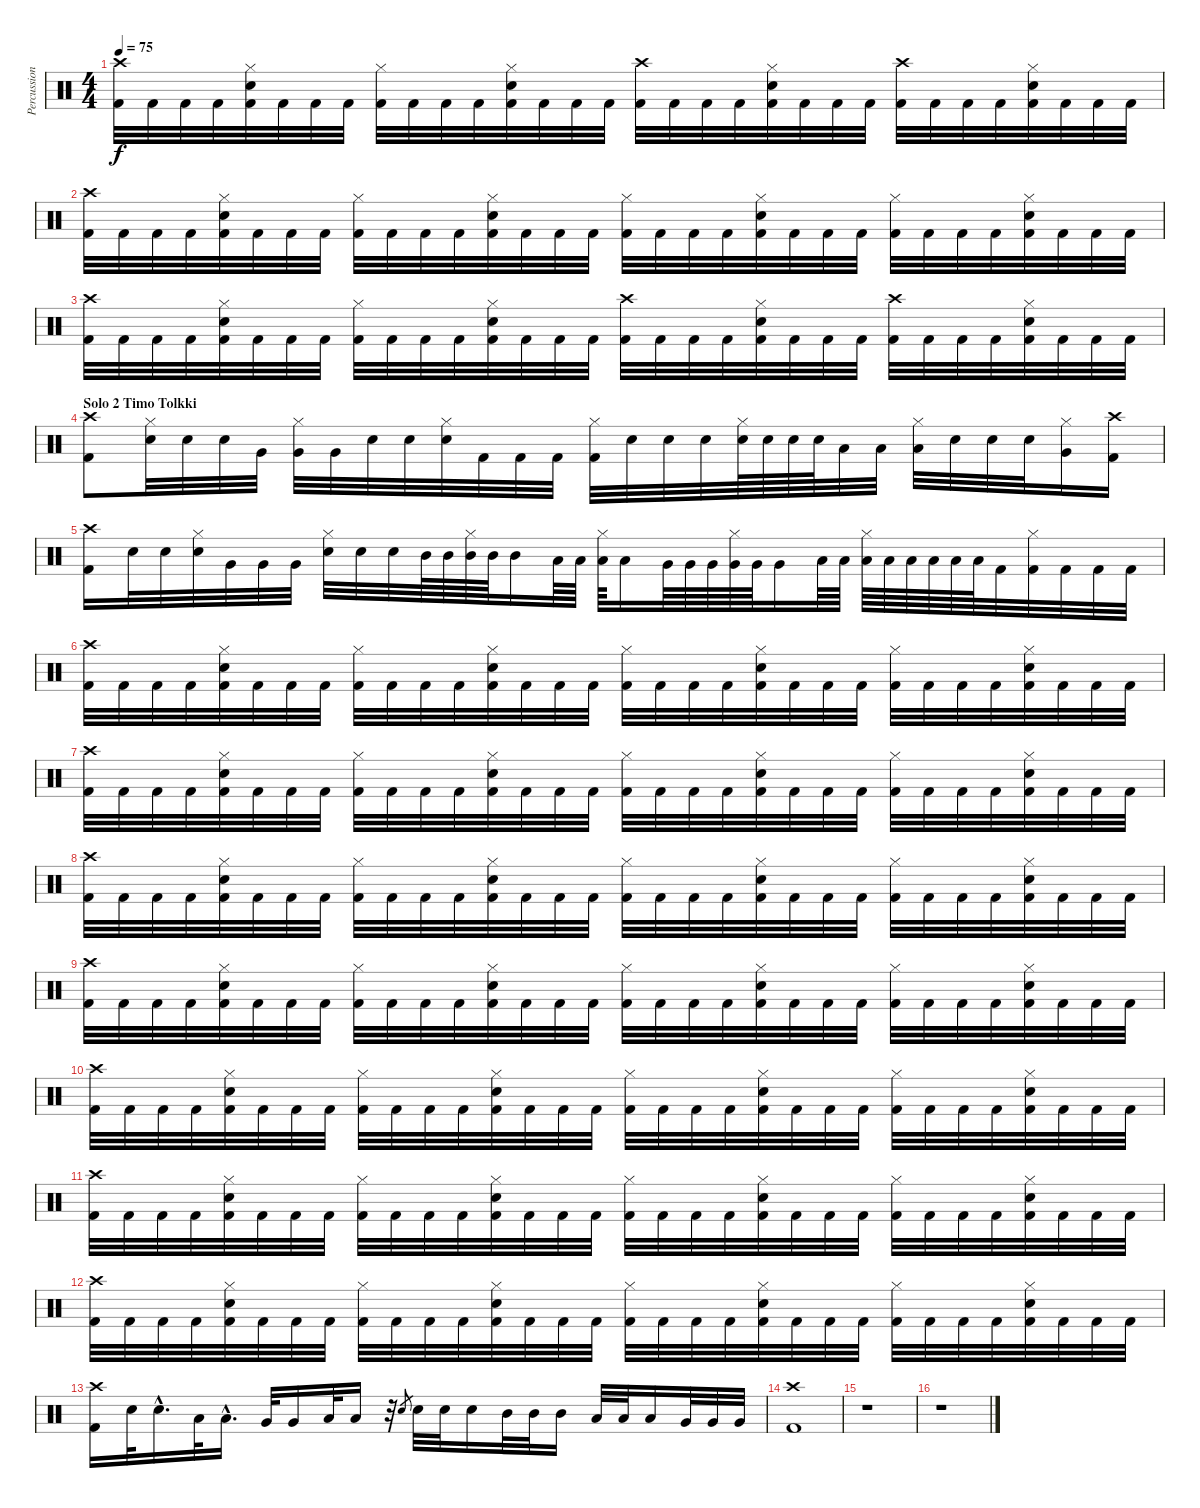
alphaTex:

\track ("Percussions" "Percussion") {instrument percussion}
\staff {score}
\articulation defaults
\ts (4 4)
\tempo 75
\clef neutral
\ks c
("Crash high (hit)" "Kick (hit) 2").32{dy f} "Kick (hit) 2".32 "Kick (hit) 2".32 "Kick (hit) 2".32 ("Hi-Hat (closed)" "Electric Snare (hit)" "Kick (hit) 2").32 "Kick (hit) 2".32 "Kick (hit) 2".32 "Kick (hit) 2".32 ("Hi-Hat (closed)" "Kick (hit) 2").32 "Kick (hit) 2".32 "Kick (hit) 2".32 "Kick (hit) 2".32 ("Hi-Hat (closed)" "Electric Snare (hit)" "Kick (hit) 2").32 "Kick (hit) 2".32 "Kick (hit) 2".32 "Kick (hit) 2".32 ("Crash high (hit)" "Kick (hit) 2").32 "Kick (hit) 2".32 "Kick (hit) 2".32 "Kick (hit) 2".32 ("Hi-Hat (closed)" "Electric Snare (hit)" "Kick (hit) 2").32 "Kick (hit) 2".32 "Kick (hit) 2".32 "Kick (hit) 2".32 ("Crash high (hit)" "Kick (hit) 2").32 "Kick (hit) 2".32 "Kick (hit) 2".32 "Kick (hit) 2".32 ("Hi-Hat (closed)" "Electric Snare (hit)" "Kick (hit) 2").32 "Kick (hit) 2".32 "Kick (hit) 2".32 "Kick (hit) 2".32 |
("Crash high (hit)" "Kick (hit) 2").32 "Kick (hit) 2".32 "Kick (hit) 2".32 "Kick (hit) 2".32 ("Hi-Hat (closed)" "Electric Snare (hit)" "Kick (hit) 2").32 "Kick (hit) 2".32 "Kick (hit) 2".32 "Kick (hit) 2".32 ("Hi-Hat (closed)" "Kick (hit) 2").32 "Kick (hit) 2".32 "Kick (hit) 2".32 "Kick (hit) 2".32 ("Hi-Hat (closed)" "Electric Snare (hit)" "Kick (hit) 2").32 "Kick (hit) 2".32 "Kick (hit) 2".32 "Kick (hit) 2".32 ("Hi-Hat (closed)" "Kick (hit) 2").32 "Kick (hit) 2".32 "Kick (hit) 2".32 "Kick (hit) 2".32 ("Hi-Hat (closed)" "Electric Snare (hit)" "Kick (hit) 2").32 "Kick (hit) 2".32 "Kick (hit) 2".32 "Kick (hit) 2".32 ("Hi-Hat (closed)" "Kick (hit) 2").32 "Kick (hit) 2".32 "Kick (hit) 2".32 "Kick (hit) 2".32 ("Hi-Hat (closed)" "Electric Snare (hit)" "Kick (hit) 2").32 "Kick (hit) 2".32 "Kick (hit) 2".32 "Kick (hit) 2".32 |
("Crash high (hit)" "Kick (hit) 2").32 "Kick (hit) 2".32 "Kick (hit) 2".32 "Kick (hit) 2".32 ("Hi-Hat (closed)" "Electric Snare (hit)" "Kick (hit) 2").32 "Kick (hit) 2".32 "Kick (hit) 2".32 "Kick (hit) 2".32 ("Hi-Hat (closed)" "Kick (hit) 2").32 "Kick (hit) 2".32 "Kick (hit) 2".32 "Kick (hit) 2".32 ("Hi-Hat (closed)" "Electric Snare (hit)" "Kick (hit) 2").32 "Kick (hit) 2".32 "Kick (hit) 2".32 "Kick (hit) 2".32 ("Crash high (hit)" "Kick (hit) 2").32 "Kick (hit) 2".32 "Kick (hit) 2".32 "Kick (hit) 2".32 ("Hi-Hat (closed)" "Electric Snare (hit)" "Kick (hit) 2").32 "Kick (hit) 2".32 "Kick (hit) 2".32 "Kick (hit) 2".32 ("Crash high (hit)" "Kick (hit) 2").32 "Kick (hit) 2".32 "Kick (hit) 2".32 "Kick (hit) 2".32 ("Hi-Hat (closed)" "Electric Snare (hit)" "Kick (hit) 2").32 "Kick (hit) 2".32 "Kick (hit) 2".32 "Kick (hit) 2".32 |
\section ("" "Solo 2 Timo Tolkki")
("Crash high (hit)" "Kick (hit) 2").8 ("Hi-Hat (closed)" "Electric Snare (hit)").32 "Electric Snare (hit)".32 "Electric Snare (hit)".32 "Very Low Tom (hit)".32 ("Hi-Hat (closed)" "Very Low Tom (hit)").32 "Very Low Tom (hit)".32 "Electric Snare (hit)".32 "Electric Snare (hit)".32 ("Hi-Hat (closed)" "Electric Snare (hit)").32 "Kick (hit) 2".32 "Kick (hit) 2".32 "Kick (hit) 2".32 ("Hi-Hat (closed)" "Kick (hit) 2").32 "Electric Snare (hit)".32 "Electric Snare (hit)".32 "Electric Snare (hit)".32 ("Hi-Hat (closed)" "Electric Snare (hit)").64 "Electric Snare (hit)".64 "Electric Snare (hit)".64 "Electric Snare (hit)".64 "Low Tom (hit)".32 "Low Tom (hit)".32 ("Hi-Hat (closed)" "Low Tom (hit)").32 "Electric Snare (hit)".32 "Electric Snare (hit)".32 "Electric Snare (hit)".32 ("Hi-Hat (closed)" "Very Low Tom (hit)").16 ("Crash high (hit)" "Kick (hit) 2").16 |
("Crash high (hit)" "Kick (hit) 2").16 "Electric Snare (hit)".32 "Electric Snare (hit)".32 ("Hi-Hat (closed)" "Electric Snare (hit)").32 "Very Low Tom (hit)".32 "Very Low Tom (hit)".32 "Very Low Tom (hit)".32 ("Hi-Hat (closed)" "Electric Snare (hit)").32 "Electric Snare (hit)".32 "Electric Snare (hit)".32 "Mid Tom (hit)".64 "Mid Tom (hit)".64 ("Hi-Hat (closed)" "Mid Tom (hit)").64 "Mid Tom (hit)".64 "Mid Tom (hit)".16 "Low Tom (hit)".64 "Low Tom (hit)".64 ("Hi-Hat (closed)" "Low Tom (hit)").64 "Low Tom (hit)".16 "Very Low Tom (hit)".64 "Very Low Tom (hit)".64 "Very Low Tom (hit)".64 ("Hi-Hat (closed)" "Very Low Tom (hit)").64 "Very Low Tom (hit)".64 "Very Low Tom (hit)".16 "Low Floor Tom (hit)".64 "Low Floor Tom (hit)".64 ("Hi-Hat (closed)" "Low Floor Tom (hit)").64 "Low Floor Tom (hit)".64 "Low Floor Tom (hit)".64 "Low Floor Tom (hit)".64 "Low Floor Tom (hit)".64 "Low Floor Tom (hit)".64 "Kick (hit) 2".32 ("Hi-Hat (closed)" "Kick (hit) 2").32 "Kick (hit) 2".32 "Kick (hit) 2".32 "Kick (hit) 2".32 |
("Crash high (hit)" "Kick (hit) 2").32 "Kick (hit) 2".32 "Kick (hit) 2".32 "Kick (hit) 2".32 ("Hi-Hat (closed)" "Electric Snare (hit)" "Kick (hit) 2").32 "Kick (hit) 2".32 "Kick (hit) 2".32 "Kick (hit) 2".32 ("Hi-Hat (closed)" "Kick (hit) 2").32 "Kick (hit) 2".32 "Kick (hit) 2".32 "Kick (hit) 2".32 ("Hi-Hat (closed)" "Electric Snare (hit)" "Kick (hit) 2").32 "Kick (hit) 2".32 "Kick (hit) 2".32 "Kick (hit) 2".32 ("Hi-Hat (closed)" "Kick (hit) 2").32 "Kick (hit) 2".32 "Kick (hit) 2".32 "Kick (hit) 2".32 ("Hi-Hat (closed)" "Electric Snare (hit)" "Kick (hit) 2").32 "Kick (hit) 2".32 "Kick (hit) 2".32 "Kick (hit) 2".32 ("Hi-Hat (closed)" "Kick (hit) 2").32 "Kick (hit) 2".32 "Kick (hit) 2".32 "Kick (hit) 2".32 ("Hi-Hat (closed)" "Electric Snare (hit)" "Kick (hit) 2").32 "Kick (hit) 2".32 "Kick (hit) 2".32 "Kick (hit) 2".32 |
("Crash high (hit)" "Kick (hit) 2").32 "Kick (hit) 2".32 "Kick (hit) 2".32 "Kick (hit) 2".32 ("Hi-Hat (closed)" "Electric Snare (hit)" "Kick (hit) 2").32 "Kick (hit) 2".32 "Kick (hit) 2".32 "Kick (hit) 2".32 ("Hi-Hat (closed)" "Kick (hit) 2").32 "Kick (hit) 2".32 "Kick (hit) 2".32 "Kick (hit) 2".32 ("Hi-Hat (closed)" "Electric Snare (hit)" "Kick (hit) 2").32 "Kick (hit) 2".32 "Kick (hit) 2".32 "Kick (hit) 2".32 ("Hi-Hat (closed)" "Kick (hit) 2").32 "Kick (hit) 2".32 "Kick (hit) 2".32 "Kick (hit) 2".32 ("Hi-Hat (closed)" "Electric Snare (hit)" "Kick (hit) 2").32 "Kick (hit) 2".32 "Kick (hit) 2".32 "Kick (hit) 2".32 ("Hi-Hat (closed)" "Kick (hit) 2").32 "Kick (hit) 2".32 "Kick (hit) 2".32 "Kick (hit) 2".32 ("Hi-Hat (closed)" "Electric Snare (hit)" "Kick (hit) 2").32 "Kick (hit) 2".32 "Kick (hit) 2".32 "Kick (hit) 2".32 |
("Crash high (hit)" "Kick (hit) 2").32 "Kick (hit) 2".32 "Kick (hit) 2".32 "Kick (hit) 2".32 ("Hi-Hat (closed)" "Electric Snare (hit)" "Kick (hit) 2").32 "Kick (hit) 2".32 "Kick (hit) 2".32 "Kick (hit) 2".32 ("Hi-Hat (closed)" "Kick (hit) 2").32 "Kick (hit) 2".32 "Kick (hit) 2".32 "Kick (hit) 2".32 ("Hi-Hat (closed)" "Electric Snare (hit)" "Kick (hit) 2").32 "Kick (hit) 2".32 "Kick (hit) 2".32 "Kick (hit) 2".32 ("Hi-Hat (closed)" "Kick (hit) 2").32 "Kick (hit) 2".32 "Kick (hit) 2".32 "Kick (hit) 2".32 ("Hi-Hat (closed)" "Electric Snare (hit)" "Kick (hit) 2").32 "Kick (hit) 2".32 "Kick (hit) 2".32 "Kick (hit) 2".32 ("Hi-Hat (closed)" "Kick (hit) 2").32 "Kick (hit) 2".32 "Kick (hit) 2".32 "Kick (hit) 2".32 ("Hi-Hat (closed)" "Electric Snare (hit)" "Kick (hit) 2").32 "Kick (hit) 2".32 "Kick (hit) 2".32 "Kick (hit) 2".32 |
("Crash high (hit)" "Kick (hit) 2").32 "Kick (hit) 2".32 "Kick (hit) 2".32 "Kick (hit) 2".32 ("Hi-Hat (closed)" "Electric Snare (hit)" "Kick (hit) 2").32 "Kick (hit) 2".32 "Kick (hit) 2".32 "Kick (hit) 2".32 ("Hi-Hat (closed)" "Kick (hit) 2").32 "Kick (hit) 2".32 "Kick (hit) 2".32 "Kick (hit) 2".32 ("Hi-Hat (closed)" "Electric Snare (hit)" "Kick (hit) 2").32 "Kick (hit) 2".32 "Kick (hit) 2".32 "Kick (hit) 2".32 ("Hi-Hat (closed)" "Kick (hit) 2").32 "Kick (hit) 2".32 "Kick (hit) 2".32 "Kick (hit) 2".32 ("Hi-Hat (closed)" "Electric Snare (hit)" "Kick (hit) 2").32 "Kick (hit) 2".32 "Kick (hit) 2".32 "Kick (hit) 2".32 ("Hi-Hat (closed)" "Kick (hit) 2").32 "Kick (hit) 2".32 "Kick (hit) 2".32 "Kick (hit) 2".32 ("Hi-Hat (closed)" "Electric Snare (hit)" "Kick (hit) 2").32 "Kick (hit) 2".32 "Kick (hit) 2".32 "Kick (hit) 2".32 |
("Crash high (hit)" "Kick (hit) 2").32 "Kick (hit) 2".32 "Kick (hit) 2".32 "Kick (hit) 2".32 ("Hi-Hat (closed)" "Electric Snare (hit)" "Kick (hit) 2").32 "Kick (hit) 2".32 "Kick (hit) 2".32 "Kick (hit) 2".32 ("Hi-Hat (closed)" "Kick (hit) 2").32 "Kick (hit) 2".32 "Kick (hit) 2".32 "Kick (hit) 2".32 ("Hi-Hat (closed)" "Electric Snare (hit)" "Kick (hit) 2").32 "Kick (hit) 2".32 "Kick (hit) 2".32 "Kick (hit) 2".32 ("Hi-Hat (closed)" "Kick (hit) 2").32 "Kick (hit) 2".32 "Kick (hit) 2".32 "Kick (hit) 2".32 ("Hi-Hat (closed)" "Electric Snare (hit)" "Kick (hit) 2").32 "Kick (hit) 2".32 "Kick (hit) 2".32 "Kick (hit) 2".32 ("Hi-Hat (closed)" "Kick (hit) 2").32 "Kick (hit) 2".32 "Kick (hit) 2".32 "Kick (hit) 2".32 ("Hi-Hat (closed)" "Electric Snare (hit)" "Kick (hit) 2").32 "Kick (hit) 2".32 "Kick (hit) 2".32 "Kick (hit) 2".32 |
("Crash high (hit)" "Kick (hit) 2").32 "Kick (hit) 2".32 "Kick (hit) 2".32 "Kick (hit) 2".32 ("Hi-Hat (closed)" "Electric Snare (hit)" "Kick (hit) 2").32 "Kick (hit) 2".32 "Kick (hit) 2".32 "Kick (hit) 2".32 ("Hi-Hat (closed)" "Kick (hit) 2").32 "Kick (hit) 2".32 "Kick (hit) 2".32 "Kick (hit) 2".32 ("Hi-Hat (closed)" "Electric Snare (hit)" "Kick (hit) 2").32 "Kick (hit) 2".32 "Kick (hit) 2".32 "Kick (hit) 2".32 ("Hi-Hat (closed)" "Kick (hit) 2").32 "Kick (hit) 2".32 "Kick (hit) 2".32 "Kick (hit) 2".32 ("Hi-Hat (closed)" "Electric Snare (hit)" "Kick (hit) 2").32 "Kick (hit) 2".32 "Kick (hit) 2".32 "Kick (hit) 2".32 ("Hi-Hat (closed)" "Kick (hit) 2").32 "Kick (hit) 2".32 "Kick (hit) 2".32 "Kick (hit) 2".32 ("Hi-Hat (closed)" "Electric Snare (hit)" "Kick (hit) 2").32 "Kick (hit) 2".32 "Kick (hit) 2".32 "Kick (hit) 2".32 |
("Crash high (hit)" "Kick (hit) 2").32 "Kick (hit) 2".32 "Kick (hit) 2".32 "Kick (hit) 2".32 ("Hi-Hat (closed)" "Electric Snare (hit)" "Kick (hit) 2").32 "Kick (hit) 2".32 "Kick (hit) 2".32 "Kick (hit) 2".32 ("Hi-Hat (closed)" "Kick (hit) 2").32 "Kick (hit) 2".32 "Kick (hit) 2".32 "Kick (hit) 2".32 ("Hi-Hat (closed)" "Electric Snare (hit)" "Kick (hit) 2").32 "Kick (hit) 2".32 "Kick (hit) 2".32 "Kick (hit) 2".32 ("Hi-Hat (closed)" "Kick (hit) 2").32 "Kick (hit) 2".32 "Kick (hit) 2".32 "Kick (hit) 2".32 ("Hi-Hat (closed)" "Electric Snare (hit)" "Kick (hit) 2").32 "Kick (hit) 2".32 "Kick (hit) 2".32 "Kick (hit) 2".32 ("Hi-Hat (closed)" "Kick (hit) 2").32 "Kick (hit) 2".32 "Kick (hit) 2".32 "Kick (hit) 2".32 ("Hi-Hat (closed)" "Electric Snare (hit)" "Kick (hit) 2").32 "Kick (hit) 2".32 "Kick (hit) 2".32 "Kick (hit) 2".32 |
("Crash high (hit)" "Kick (hit) 2").16 "Electric Snare (hit)".32 "Electric Snare (hit)"{hac}.16{d} "Low Tom (hit)".32 "Low Tom (hit)"{hac}.16{d} "Very Low Tom (hit)".32 "Very Low Tom (hit)".16 "Low Floor Tom (hit)".32 "Low Floor Tom (hit)".16 r.32 "Electric Snare (hit)".8{gr} "Electric Snare (hit)".32 "Electric Snare (hit)".32 "Electric Snare (hit)".16 "Mid Tom (hit)".32 "Mid Tom (hit)".32 "Mid Tom (hit)".16 "Low Tom (hit)".32 "Low Tom (hit)".32 "Low Tom (hit)".16 "Very Low Tom (hit)".32 "Very Low Tom (hit)".32 "Very Low Tom (hit)".32 |
("Crash high (hit)" "Kick (hit) 2").1 |
r.1 |
r.1
